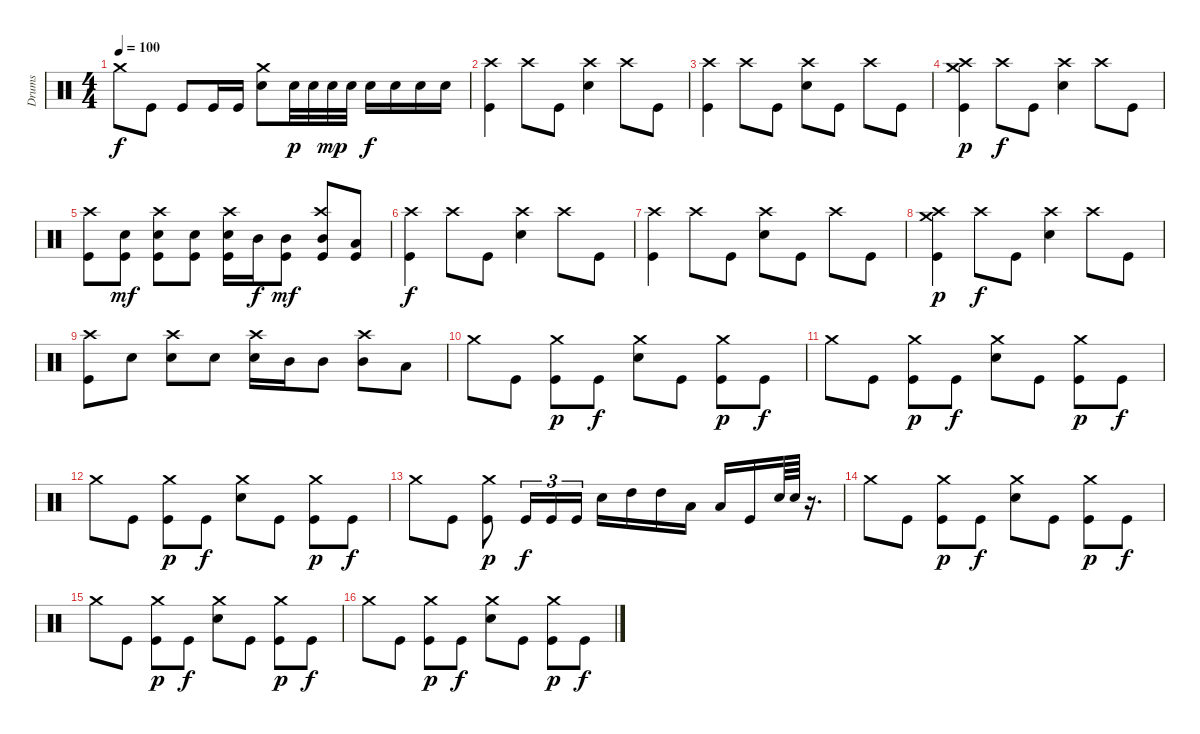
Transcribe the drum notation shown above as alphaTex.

\track ("Drums" "Drums") {instrument percussion}
\staff {score}
\articulation defaults
\ts (4 4)
\tempo 100
\clef neutral
\ks c "Crash medium (hit)".8{dy f} "Kick (hit)".8 "Kick (hit)".8 "Kick (hit)".16 "Kick (hit)".16
("Crash medium (hit)" "Electric Snare (hit)").8 "Electric Snare (hit)".32{dy p} "Electric Snare (hit)".32 "Electric Snare (hit)".32{dy mp} "Electric Snare (hit)".32 "Electric Snare (hit)".16{dy f} "Electric Snare (hit)".16 "Electric Snare (hit)".16 "Electric Snare (hit)".16 |
("Crash high (hit)" "Kick (hit)").4 "Crash high (hit)".8 "Kick (hit)".8 ("Crash high (hit)" "Electric Snare (hit)").4 "Crash high (hit)".8 "Kick (hit)".8 |
("Crash high (hit)" "Kick (hit)").4 "Crash high (hit)".8 "Kick (hit)".8 ("Crash high (hit)" "Electric Snare (hit)").8 "Kick (hit)".8 "Crash high (hit)".8 "Kick (hit)".8 |
("Crash high (hit)" "Crash medium (hit)" "Kick (hit)").4{dy p} "Crash high (hit)".8{dy f} "Kick (hit)".8 ("Crash high (hit)" "Electric Snare (hit)").4 "Crash high (hit)".8 "Kick (hit)".8 |
("Crash high (hit)" "Kick (hit)").8 ("Electric Snare (hit)" "Kick (hit)").8{dy mf} ("Crash high (hit)" "Electric Snare (hit)" "Kick (hit)").8 ("Electric Snare (hit)" "Kick (hit)").8 ("Crash high (hit)" "Electric Snare (hit)" "Kick (hit)").16 "Mid Tom (hit)".16{dy f} ("Mid Tom (hit)" "Kick (hit)").8{dy mf} ("Crash high (hit)" "Mid Tom (hit)" "Kick (hit)").8 ("Low Tom (hit)" "Kick (hit)").8 |
("Crash high (hit)" "Kick (hit)").4{dy f} "Crash high (hit)".8 "Kick (hit)".8 ("Crash high (hit)" "Electric Snare (hit)").4 "Crash high (hit)".8 "Kick (hit)".8 |
("Crash high (hit)" "Kick (hit)").4 "Crash high (hit)".8 "Kick (hit)".8 ("Crash high (hit)" "Electric Snare (hit)").8 "Kick (hit)".8 "Crash high (hit)".8 "Kick (hit)".8 |
("Crash high (hit)" "Crash medium (hit)" "Kick (hit)").4{dy p} "Crash high (hit)".8{dy f} "Kick (hit)".8 ("Crash high (hit)" "Electric Snare (hit)").4 "Crash high (hit)".8 "Kick (hit)".8 |
("Crash high (hit)" "Kick (hit)").8 "Electric Snare (hit)".8 ("Crash high (hit)" "Electric Snare (hit)").8 "Electric Snare (hit)".8 ("Crash high (hit)" "Electric Snare (hit)").16 "Mid Tom (hit)".16 "Mid Tom (hit)".8 ("Crash high (hit)" "Mid Tom (hit)").8 "Low Tom (hit)".8 |
"Crash medium (hit)".8 "Kick (hit)".8 ("Crash medium (hit)" "Kick (hit)").8{dy p} "Kick (hit)".8{dy f} ("Crash medium (hit)" "Electric Snare (hit)").8 "Kick (hit)".8 ("Crash medium (hit)" "Kick (hit)").8{dy p} "Kick (hit)".8{dy f} |
"Crash medium (hit)".8 "Kick (hit)".8 ("Crash medium (hit)" "Kick (hit)").8{dy p} "Kick (hit)".8{dy f} ("Crash medium (hit)" "Electric Snare (hit)").8 "Kick (hit)".8 ("Crash medium (hit)" "Kick (hit)").8{dy p} "Kick (hit)".8{dy f} |
"Crash medium (hit)".8 "Kick (hit)".8 ("Crash medium (hit)" "Kick (hit)").8{dy p} "Kick (hit)".8{dy f} ("Crash medium (hit)" "Electric Snare (hit)").8 "Kick (hit)".8 ("Crash medium (hit)" "Kick (hit)").8{dy p} "Kick (hit)".8{dy f} |
"Crash medium (hit)".8 "Kick (hit)".8 ("Crash medium (hit)" "Kick (hit)").8{dy p} "Kick (hit)".16{tu (3 2) dy f} "Kick (hit)".16{tu (3 2)} "Kick (hit)".16{tu (3 2)} "Electric Snare (hit)".16 "High Tom (hit)".16 "High Tom (hit)".16 "Low Tom (hit)".16 "Low Tom (hit)".16 "Kick (hit)".16 "Electric Snare (hit)".64 "Electric Snare (hit)".64 r.16{d} |
"Crash medium (hit)".8 "Kick (hit)".8 ("Crash medium (hit)" "Kick (hit)").8{dy p} "Kick (hit)".8{dy f} ("Crash medium (hit)" "Electric Snare (hit)").8 "Kick (hit)".8 ("Crash medium (hit)" "Kick (hit)").8{dy p} "Kick (hit)".8{dy f} |
"Crash medium (hit)".8 "Kick (hit)".8 ("Crash medium (hit)" "Kick (hit)").8{dy p} "Kick (hit)".8{dy f} ("Crash medium (hit)" "Electric Snare (hit)").8 "Kick (hit)".8 ("Crash medium (hit)" "Kick (hit)").8{dy p} "Kick (hit)".8{dy f} |
"Crash medium (hit)".8 "Kick (hit)".8 ("Crash medium (hit)" "Kick (hit)").8{dy p} "Kick (hit)".8{dy f} ("Crash medium (hit)" "Electric Snare (hit)").8 "Kick (hit)".8 ("Crash medium (hit)" "Kick (hit)").8{dy p} "Kick (hit)".8{dy f}
